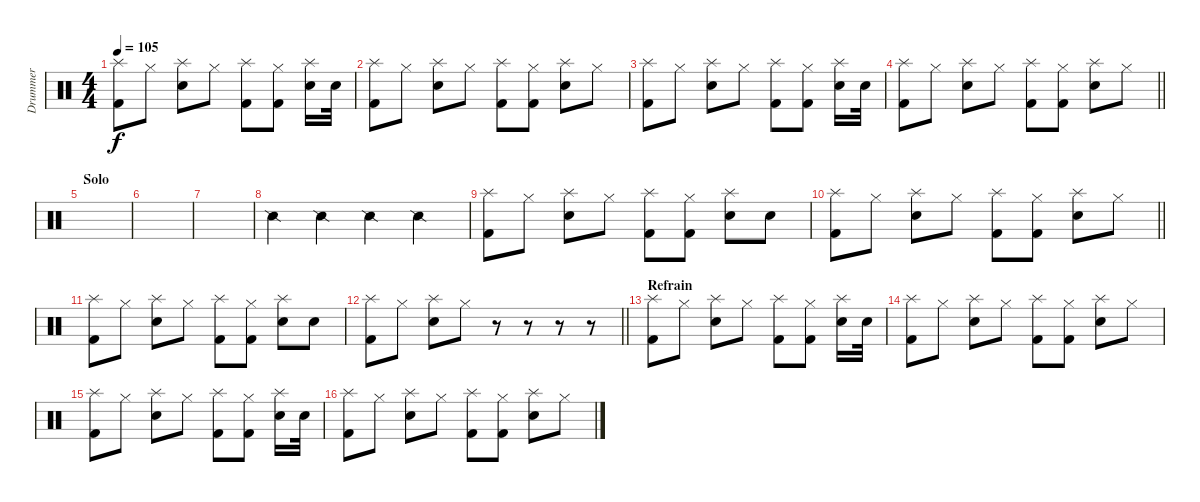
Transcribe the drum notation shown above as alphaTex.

\track ("Drummer" "Drummer") {instrument percussion}
\staff {score}
\articulation defaults
\ts (4 4)
\tempo 105
\clef neutral
\ks c
("Splash (hit)" "Kick (hit) 2").8{dy f} "Hi-Hat (closed)".8 ("Splash (hit)" "Snare (hit) 2").8 "Hi-Hat (closed)".8 ("Splash (hit)" "Kick (hit) 2").8 ("Hi-Hat (closed)" "Kick (hit) 2").8 ("Splash (hit)" "Snare (hit) 2").16 "Snare (hit) 2".32 |
("Splash (hit)" "Kick (hit) 2").8 "Hi-Hat (closed)".8 ("Splash (hit)" "Snare (hit) 2").8 "Hi-Hat (closed)".8 ("Splash (hit)" "Kick (hit) 2").8 ("Hi-Hat (closed)" "Kick (hit) 2").8 ("Splash (hit)" "Snare (hit) 2").8 "Hi-Hat (closed)".8 |
("Splash (hit)" "Kick (hit) 2").8 "Hi-Hat (closed)".8 ("Splash (hit)" "Snare (hit) 2").8 "Hi-Hat (closed)".8 ("Splash (hit)" "Kick (hit) 2").8 ("Hi-Hat (closed)" "Kick (hit) 2").8 ("Splash (hit)" "Snare (hit) 2").16 "Snare (hit) 2".32 |
\barLineRight lightlight
("Splash (hit)" "Kick (hit) 2").8 "Hi-Hat (closed)".8 ("Splash (hit)" "Snare (hit) 2").8 "Hi-Hat (closed)".8 ("Splash (hit)" "Kick (hit) 2").8 ("Hi-Hat (closed)" "Kick (hit) 2").8 ("Splash (hit)" "Snare (hit) 2").8 "Hi-Hat (closed)".8 |
\section ("" "Solo")
|
|
|
"Snare (side stick) 2".4 "Snare (side stick) 2".4 "Snare (side stick) 2".4 "Snare (side stick) 2".4 |
("Splash (hit)" "Kick (hit) 2").8 "Hi-Hat (closed)".8 ("Splash (hit)" "Snare (hit) 2").8 "Hi-Hat (closed)".8 ("Splash (hit)" "Kick (hit) 2").8 ("Hi-Hat (closed)" "Kick (hit) 2").8 ("Splash (hit)" "Snare (hit) 2").8 "Snare (hit) 2".8 |
\barLineRight lightlight
("Splash (hit)" "Kick (hit) 2").8 "Hi-Hat (closed)".8 ("Splash (hit)" "Snare (hit) 2").8 "Hi-Hat (closed)".8 ("Splash (hit)" "Kick (hit) 2").8 ("Hi-Hat (closed)" "Kick (hit) 2").8 ("Splash (hit)" "Snare (hit) 2").8 "Hi-Hat (closed)".8 |
("Splash (hit)" "Kick (hit) 2").8 "Hi-Hat (closed)".8 ("Splash (hit)" "Snare (hit) 2").8 "Hi-Hat (closed)".8 ("Splash (hit)" "Kick (hit) 2").8 ("Hi-Hat (closed)" "Kick (hit) 2").8 ("Splash (hit)" "Snare (hit) 2").8 "Snare (hit) 2".8 |
\barLineRight lightlight
("Splash (hit)" "Kick (hit) 2").8 "Hi-Hat (closed)".8 ("Splash (hit)" "Snare (hit) 2").8 "Hi-Hat (closed)".8 r.8 r.8 r.8 r.8 |
\section ("" "Refrain")
("Splash (hit)" "Kick (hit) 2").8 "Hi-Hat (closed)".8 ("Splash (hit)" "Snare (hit) 2").8 "Hi-Hat (closed)".8 ("Splash (hit)" "Kick (hit) 2").8 ("Hi-Hat (closed)" "Kick (hit) 2").8 ("Splash (hit)" "Snare (hit) 2").16 "Snare (hit) 2".32 |
("Splash (hit)" "Kick (hit) 2").8 "Hi-Hat (closed)".8 ("Splash (hit)" "Snare (hit) 2").8 "Hi-Hat (closed)".8 ("Splash (hit)" "Kick (hit) 2").8 ("Hi-Hat (closed)" "Kick (hit) 2").8 ("Splash (hit)" "Snare (hit) 2").8 "Hi-Hat (closed)".8 |
("Splash (hit)" "Kick (hit) 2").8 "Hi-Hat (closed)".8 ("Splash (hit)" "Snare (hit) 2").8 "Hi-Hat (closed)".8 ("Splash (hit)" "Kick (hit) 2").8 ("Hi-Hat (closed)" "Kick (hit) 2").8 ("Splash (hit)" "Snare (hit) 2").16 "Snare (hit) 2".32 |
("Splash (hit)" "Kick (hit) 2").8 "Hi-Hat (closed)".8 ("Splash (hit)" "Snare (hit) 2").8 "Hi-Hat (closed)".8 ("Splash (hit)" "Kick (hit) 2").8 ("Hi-Hat (closed)" "Kick (hit) 2").8 ("Splash (hit)" "Snare (hit) 2").8 "Hi-Hat (closed)".8
